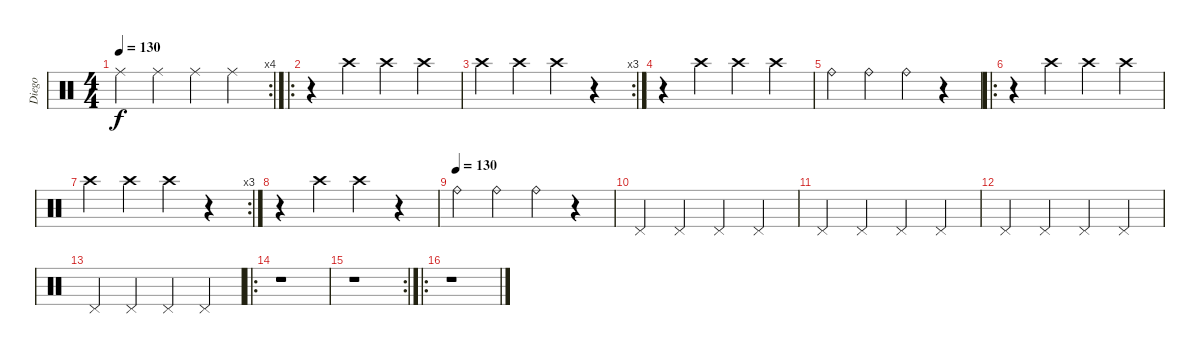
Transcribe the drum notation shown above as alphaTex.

\track ("Diego" "Diego") {instrument percussion}
\staff {score}
\articulation defaults
\rc 4
\ts (4 4)
\tempo 130
\clef neutral
\ks c "Ride (middle)".4{dy f} "Ride (middle)".4 "Ride (middle)".4 "Ride (middle)".4
|
\ro
r.4 "Crash high (hit)".4 "Crash high (hit)".4 "Crash high (hit)".4 |
\rc 3 "Crash high (hit)".4 "Crash high (hit)".4 "Crash high (hit)".4
r.4 |
r.4 "Crash high (hit)".4 "Crash high (hit)".4 "Crash high (hit)".4 |
"Ride (bell)".4 "Ride (bell)".4 "Ride (bell)".4 r.4 |
\ro
r.4 "Crash high (hit)".4 "Crash high (hit)".4 "Crash high (hit)".4 |
\rc 3 "Crash high (hit)".4 "Crash high (hit)".4 "Crash high (hit)".4
r.4 |
r.4 "Crash high (hit)".4 "Crash high (hit)".4 r.4 |
\tempo (130)
"Ride (bell)".4 "Ride (bell)".4 "Ride (bell)".4 r.4 |
"Pedal Hi-Hat (hit)".4 "Pedal Hi-Hat (hit)".4 "Pedal Hi-Hat (hit)".4 "Pedal Hi-Hat (hit)".4 |
"Pedal Hi-Hat (hit)".4 "Pedal Hi-Hat (hit)".4 "Pedal Hi-Hat (hit)".4 "Pedal Hi-Hat (hit)".4 |
"Pedal Hi-Hat (hit)".4 "Pedal Hi-Hat (hit)".4 "Pedal Hi-Hat (hit)".4 "Pedal Hi-Hat (hit)".4 |
"Pedal Hi-Hat (hit)".4 "Pedal Hi-Hat (hit)".4 "Pedal Hi-Hat (hit)".4 "Pedal Hi-Hat (hit)".4 |
\ro
r.1 |
\rc 2
r.1 |
\ro
r.1
